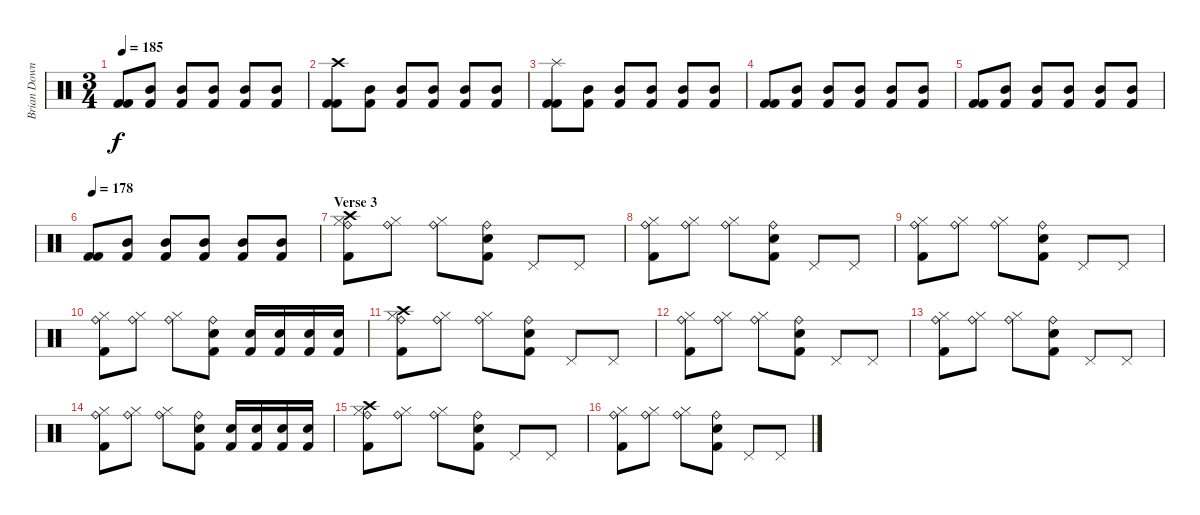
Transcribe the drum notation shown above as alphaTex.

\track ("Brian Downey" "Brian Down") {instrument percussion}
\staff {score}
\articulation defaults
\ts (3 4)
\tempo 185
\clef neutral
\ks c
("Kick (hit) 2" "Kick (hit) 2").8{dy f} ("Mid Tom (hit)" "Kick (hit) 2").8 ("Mid Tom (hit)" "Kick (hit) 2").8 ("Mid Tom (hit)" "Kick (hit) 2").8 ("Mid Tom (hit)" "Kick (hit) 2").8 ("Mid Tom (hit)" "Kick (hit) 2").8 |
("Crash high (hit)" "Kick (hit) 2" "Kick (hit) 2").8 ("Mid Tom (hit)" "Kick (hit) 2").8 ("Mid Tom (hit)" "Kick (hit) 2").8 ("Mid Tom (hit)" "Kick (hit) 2").8 ("Mid Tom (hit)" "Kick (hit) 2").8 ("Mid Tom (hit)" "Kick (hit) 2").8 |
("Splash (hit)" "Kick (hit) 2" "Kick (hit) 2").8 ("Mid Tom (hit)" "Kick (hit) 2").8 ("Mid Tom (hit)" "Kick (hit) 2").8 ("Mid Tom (hit)" "Kick (hit) 2").8 ("Mid Tom (hit)" "Kick (hit) 2").8 ("Mid Tom (hit)" "Kick (hit) 2").8 |
("Kick (hit) 2" "Kick (hit) 2").8 ("Mid Tom (hit)" "Kick (hit) 2").8 ("Mid Tom (hit)" "Kick (hit) 2").8 ("Mid Tom (hit)" "Kick (hit) 2").8 ("Mid Tom (hit)" "Kick (hit) 2").8 ("Mid Tom (hit)" "Kick (hit) 2").8 |
("Kick (hit) 2" "Kick (hit) 2").8 ("Mid Tom (hit)" "Kick (hit) 2").8 ("Mid Tom (hit)" "Kick (hit) 2").8 ("Mid Tom (hit)" "Kick (hit) 2").8 ("Mid Tom (hit)" "Kick (hit) 2").8 ("Mid Tom (hit)" "Kick (hit) 2").8 |
\tempo 178
("Kick (hit) 2" "Kick (hit) 2").8 ("Mid Tom (hit)" "Kick (hit) 2").8 ("Mid Tom (hit)" "Kick (hit) 2").8 ("Mid Tom (hit)" "Kick (hit) 2").8 ("Mid Tom (hit)" "Kick (hit) 2").8 ("Mid Tom (hit)" "Kick (hit) 2").8 |
\section ("" "Verse 3")
("Crash high (hit)" "Ride (bell)" "Hi-Hat (closed)" "Kick (hit) 2").8 ("Ride (bell)" "Hi-Hat (closed)").8 ("Ride (bell)" "Hi-Hat (closed)").8 ("Ride (bell)" "Snare (hit) 2" "Kick (hit) 2").8 "Pedal Hi-Hat (hit)".8 "Pedal Hi-Hat (hit)".8 |
("Ride (bell)" "Hi-Hat (closed)" "Kick (hit) 2").8 ("Ride (bell)" "Hi-Hat (closed)").8 ("Ride (bell)" "Hi-Hat (closed)").8 ("Ride (bell)" "Snare (hit) 2" "Kick (hit) 2").8 "Pedal Hi-Hat (hit)".8 "Pedal Hi-Hat (hit)".8 |
("Ride (bell)" "Hi-Hat (closed)" "Kick (hit) 2").8 ("Ride (bell)" "Hi-Hat (closed)").8 ("Ride (bell)" "Hi-Hat (closed)").8 ("Ride (bell)" "Snare (hit) 2" "Kick (hit) 2").8 "Pedal Hi-Hat (hit)".8 "Pedal Hi-Hat (hit)".8 |
("Ride (bell)" "Hi-Hat (closed)" "Kick (hit) 2").8 ("Ride (bell)" "Hi-Hat (closed)").8 ("Ride (bell)" "Hi-Hat (closed)").8 ("Ride (bell)" "Snare (hit) 2" "Kick (hit) 2").8 ("Snare (hit) 2" "Kick (hit) 2").16 ("Snare (hit) 2" "Kick (hit) 2").16 ("Snare (hit) 2" "Kick (hit) 2").16 ("Snare (hit) 2" "Kick (hit) 2").16 |
("Crash high (hit)" "Ride (bell)" "Hi-Hat (closed)" "Kick (hit) 2").8 ("Ride (bell)" "Hi-Hat (closed)").8 ("Ride (bell)" "Hi-Hat (closed)").8 ("Ride (bell)" "Snare (hit) 2" "Kick (hit) 2").8 "Pedal Hi-Hat (hit)".8 "Pedal Hi-Hat (hit)".8 |
("Ride (bell)" "Hi-Hat (closed)" "Kick (hit) 2").8 ("Ride (bell)" "Hi-Hat (closed)").8 ("Ride (bell)" "Hi-Hat (closed)").8 ("Ride (bell)" "Snare (hit) 2" "Kick (hit) 2").8 "Pedal Hi-Hat (hit)".8 "Pedal Hi-Hat (hit)".8 |
("Ride (bell)" "Hi-Hat (closed)" "Kick (hit) 2").8 ("Ride (bell)" "Hi-Hat (closed)").8 ("Ride (bell)" "Hi-Hat (closed)").8 ("Ride (bell)" "Snare (hit) 2" "Kick (hit) 2").8 "Pedal Hi-Hat (hit)".8 "Pedal Hi-Hat (hit)".8 |
("Ride (bell)" "Hi-Hat (closed)" "Kick (hit) 2").8 ("Ride (bell)" "Hi-Hat (closed)").8 ("Ride (bell)" "Hi-Hat (closed)").8 ("Ride (bell)" "Snare (hit) 2" "Kick (hit) 2").8 ("Snare (hit) 2" "Kick (hit) 2").16 ("Snare (hit) 2" "Kick (hit) 2").16 ("Snare (hit) 2" "Kick (hit) 2").16 ("Snare (hit) 2" "Kick (hit) 2").16 |
("Crash high (hit)" "Ride (bell)" "Hi-Hat (closed)" "Kick (hit) 2").8 ("Ride (bell)" "Hi-Hat (closed)").8 ("Ride (bell)" "Hi-Hat (closed)").8 ("Ride (bell)" "Snare (hit) 2" "Kick (hit) 2").8 "Pedal Hi-Hat (hit)".8 "Pedal Hi-Hat (hit)".8 |
("Ride (bell)" "Hi-Hat (closed)" "Kick (hit) 2").8 ("Ride (bell)" "Hi-Hat (closed)").8 ("Ride (bell)" "Hi-Hat (closed)").8 ("Ride (bell)" "Snare (hit) 2" "Kick (hit) 2").8 "Pedal Hi-Hat (hit)".8 "Pedal Hi-Hat (hit)".8
